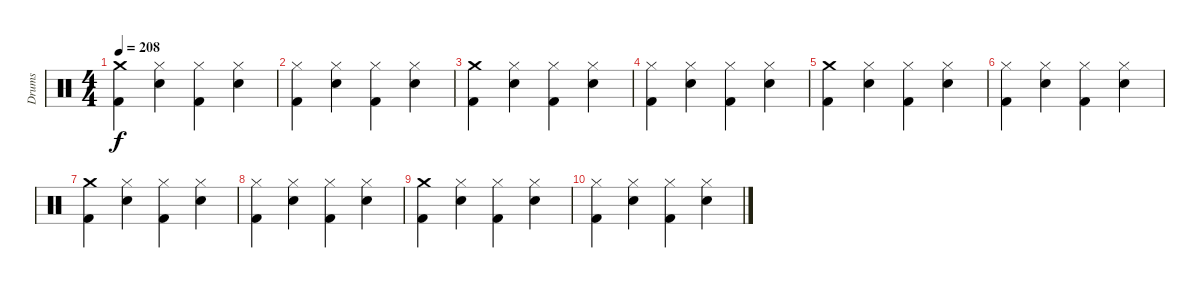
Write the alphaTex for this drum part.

\track ("Drums" "Drums") {instrument percussion}
\staff {score}
\articulation defaults
\ts (4 4)
\tempo 208
\clef neutral
\ks c
("Crash medium (hit)" "Kick (hit) 2").4{dy f} ("Hi-Hat (closed)" "Snare (hit) 2").4 ("Hi-Hat (closed)" "Kick (hit) 2").4 ("Hi-Hat (closed)" "Snare (hit) 2").4 |
("Hi-Hat (closed)" "Kick (hit) 2").4 ("Hi-Hat (closed)" "Snare (hit) 2").4 ("Hi-Hat (closed)" "Kick (hit) 2").4 ("Hi-Hat (closed)" "Snare (hit) 2").4 |
("Crash medium (hit)" "Kick (hit) 2").4 ("Hi-Hat (closed)" "Snare (hit) 2").4 ("Hi-Hat (closed)" "Kick (hit) 2").4 ("Hi-Hat (closed)" "Snare (hit) 2").4 |
("Hi-Hat (closed)" "Kick (hit) 2").4 ("Hi-Hat (closed)" "Snare (hit) 2").4 ("Hi-Hat (closed)" "Kick (hit) 2").4 ("Hi-Hat (closed)" "Snare (hit) 2").4 |
("Crash medium (hit)" "Kick (hit) 2").4 ("Hi-Hat (closed)" "Snare (hit) 2").4 ("Hi-Hat (closed)" "Kick (hit) 2").4 ("Hi-Hat (closed)" "Snare (hit) 2").4 |
("Hi-Hat (closed)" "Kick (hit) 2").4 ("Hi-Hat (closed)" "Snare (hit) 2").4 ("Hi-Hat (closed)" "Kick (hit) 2").4 ("Hi-Hat (closed)" "Snare (hit) 2").4 |
("Crash medium (hit)" "Kick (hit) 2").4 ("Hi-Hat (closed)" "Snare (hit) 2").4 ("Hi-Hat (closed)" "Kick (hit) 2").4 ("Hi-Hat (closed)" "Snare (hit) 2").4 |
("Hi-Hat (closed)" "Kick (hit) 2").4 ("Hi-Hat (closed)" "Snare (hit) 2").4 ("Hi-Hat (closed)" "Kick (hit) 2").4 ("Hi-Hat (closed)" "Snare (hit) 2").4 |
("Crash medium (hit)" "Kick (hit) 2").4 ("Hi-Hat (closed)" "Snare (hit) 2").4 ("Hi-Hat (closed)" "Kick (hit) 2").4 ("Hi-Hat (closed)" "Snare (hit) 2").4 |
("Hi-Hat (closed)" "Kick (hit) 2").4 ("Hi-Hat (closed)" "Snare (hit) 2").4 ("Hi-Hat (closed)" "Kick (hit) 2").4 ("Hi-Hat (closed)" "Snare (hit) 2").4
